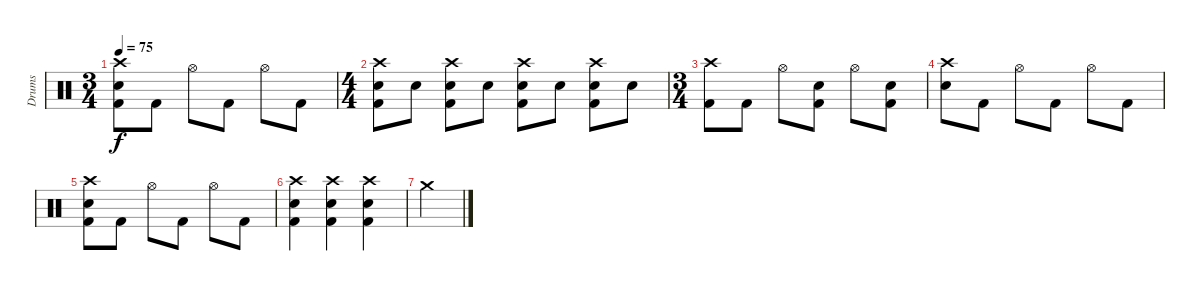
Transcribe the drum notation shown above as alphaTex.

\track ("Drums" "Drums") {instrument percussion}
\staff {score}
\articulation defaults
\ts (3 4)
\tempo 75
\clef neutral
\ks c
("Crash high (hit)" "Electric Snare (hit)" "Kick (hit) 2").8{dy f} "Kick (hit) 2".8 "Hi-Hat (open)".8 "Kick (hit) 2".8 "Hi-Hat (open)".8 "Kick (hit) 2".8 |
\ts (4 4)
("Crash high (hit)" "Electric Snare (hit)" "Kick (hit) 2").8 "Electric Snare (hit)".8 ("Crash high (hit)" "Electric Snare (hit)" "Kick (hit) 2").8 "Electric Snare (hit)".8 ("Crash high (hit)" "Electric Snare (hit)" "Kick (hit) 2").8 "Electric Snare (hit)".8 ("Crash high (hit)" "Electric Snare (hit)" "Kick (hit) 2").8 "Electric Snare (hit)".8 |
\ts (3 4)
("Crash high (hit)" "Kick (hit) 2").8 "Kick (hit) 2".8 "Hi-Hat (open)".8 ("Electric Snare (hit)" "Kick (hit) 2").8 "Hi-Hat (open)".8 ("Electric Snare (hit)" "Kick (hit) 2").8 |
("Crash high (hit)" "Electric Snare (hit)").8 "Kick (hit) 2".8 "Hi-Hat (open)".8 "Kick (hit) 2".8 "Hi-Hat (open)".8 "Kick (hit) 2".8 |
("Crash high (hit)" "Electric Snare (hit)" "Kick (hit) 2").8 "Kick (hit) 2".8 "Hi-Hat (open)".8 "Kick (hit) 2".8 "Hi-Hat (open)".8 "Kick (hit) 2".8 |
("Crash high (hit)" "Electric Snare (hit)" "Kick (hit) 2").4 ("Crash high (hit)" "Electric Snare (hit)" "Kick (hit) 2").4 ("Crash high (hit)" "Electric Snare (hit)" "Kick (hit) 2").4 |
"Crash medium (hit)".4
